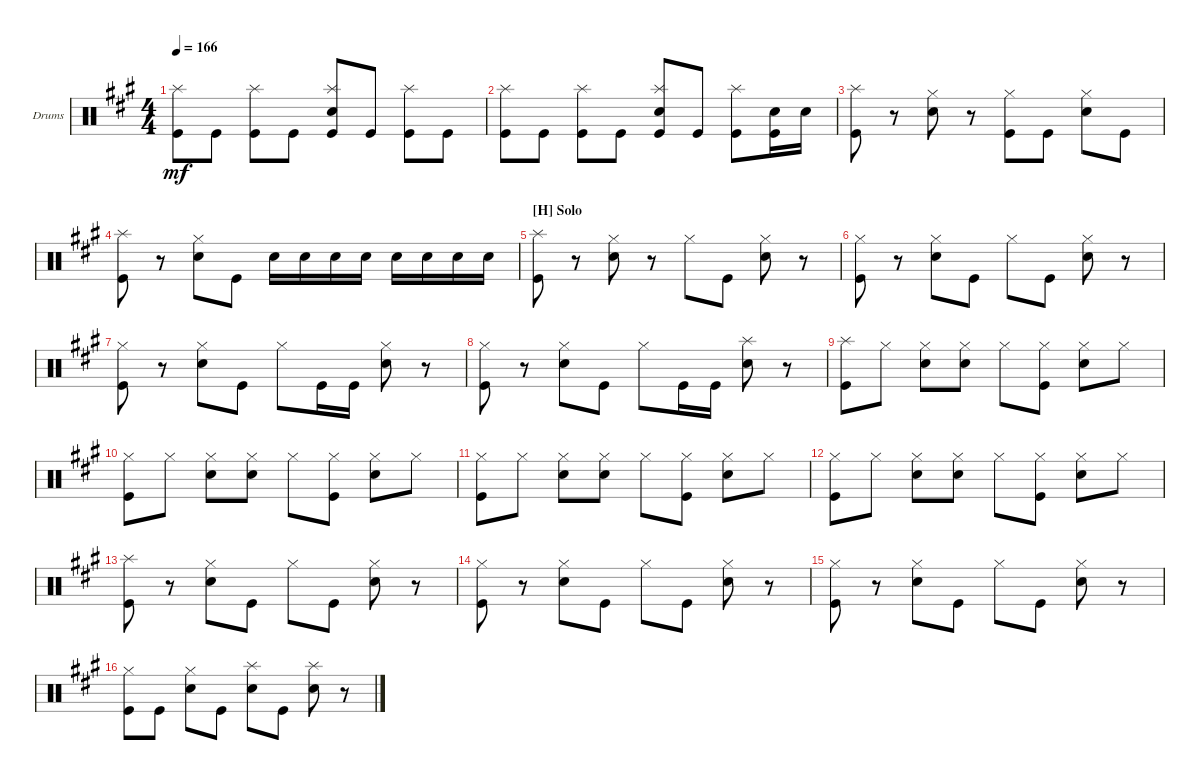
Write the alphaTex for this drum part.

\defaultSystemsLayout 4
\bracketExtendMode groupsimilarinstruments
\firstSystemTrackNameOrientation horizontal
\otherSystemsTrackNameOrientation horizontal
\track ("Drumkit" "Drums") {instrument percussion}
\staff {score}
\articulation defaults
\ts (4 4)
\tempo 166
\clef neutral
\ks a
("Kick (hit)" "Splash (hit)").8{dy mf} "Kick (hit)".8 ("Kick (hit)" "Splash (hit)").8 "Kick (hit)".8 ("Kick (hit)" "Splash (hit)" "Snare (hit) 2").8 "Kick (hit)".8 ("Kick (hit)" "Splash (hit)").8 "Kick (hit)".8 |
("Kick (hit)" "Splash (hit)").8 "Kick (hit)".8 ("Kick (hit)" "Splash (hit)").8 "Kick (hit)".8 ("Kick (hit)" "Splash (hit)" "Snare (hit) 2").8 "Kick (hit)".8 ("Kick (hit)" "Splash (hit)").8 ("Kick (hit)" "Snare (hit) 2").16 "Snare (hit) 2".16 |
("Kick (hit)" "Splash (hit)").8 r.8 ("Snare (hit) 2" "Hi-Hat (closed)").8 r.8 ("Kick (hit)" "Hi-Hat (closed)").8 "Kick (hit)".8 ("Hi-Hat (closed)" "Snare (hit) 2").8 "Kick (hit)".8 |
("Kick (hit)" "Splash (hit)").8 r.8 ("Hi-Hat (closed)" "Snare (hit) 2").8 "Kick (hit)".8 "Snare (hit) 2".16 "Snare (hit) 2".16 "Snare (hit) 2".16 "Snare (hit) 2".16 "Snare (hit) 2".16 "Snare (hit) 2".16 "Snare (hit) 2".16 "Snare (hit) 2".16 |
\section ("H" "Solo")
("Splash (hit)" "Kick (hit)").8 r.8 ("Hi-Hat (closed)" "Snare (hit) 2").8 r.8 "Hi-Hat (closed)".8 "Kick (hit)".8 ("Hi-Hat (closed)" "Snare (hit) 2").8 r.8 |
("Kick (hit)" "Hi-Hat (closed)").8 r.8 ("Hi-Hat (closed)" "Snare (hit) 2").8 "Kick (hit)".8 "Hi-Hat (closed)".8 "Kick (hit)".8 ("Hi-Hat (closed)" "Snare (hit) 2").8 r.8 |
("Kick (hit)" "Hi-Hat (closed)").8 r.8 ("Hi-Hat (closed)" "Snare (hit) 2").8 "Kick (hit)".8 "Hi-Hat (closed)".8 "Kick (hit)".16 "Kick (hit)".16 ("Hi-Hat (closed)" "Snare (hit) 2").8 r.8 |
("Kick (hit)" "Hi-Hat (closed)").8 r.8 ("Hi-Hat (closed)" "Snare (hit) 2").8 "Kick (hit)".8 "Hi-Hat (closed)".8 "Kick (hit)".16 "Kick (hit)".16 ("Snare (hit) 2" "Splash (hit)").8 r.8 |
("Splash (hit)" "Kick (hit)").8 "Hi-Hat (closed)".8 ("Snare (hit) 2" "Hi-Hat (closed)").8 ("Snare (hit) 2" "Hi-Hat (closed)").8 "Hi-Hat (closed)".8 ("Kick (hit)" "Hi-Hat (closed)").8 ("Snare (hit) 2" "Hi-Hat (closed)").8 "Hi-Hat (closed)".8 |
("Kick (hit)" "Hi-Hat (closed)").8 "Hi-Hat (closed)".8 ("Snare (hit) 2" "Hi-Hat (closed)").8 ("Snare (hit) 2" "Hi-Hat (closed)").8 "Hi-Hat (closed)".8 ("Kick (hit)" "Hi-Hat (closed)").8 ("Snare (hit) 2" "Hi-Hat (closed)").8 "Hi-Hat (closed)".8 |
("Kick (hit)" "Hi-Hat (closed)").8 "Hi-Hat (closed)".8 ("Snare (hit) 2" "Hi-Hat (closed)").8 ("Snare (hit) 2" "Hi-Hat (closed)").8 "Hi-Hat (closed)".8 ("Kick (hit)" "Hi-Hat (closed)").8 ("Snare (hit) 2" "Hi-Hat (closed)").8 "Hi-Hat (closed)".8 |
("Kick (hit)" "Hi-Hat (closed)").8 "Hi-Hat (closed)".8 ("Snare (hit) 2" "Hi-Hat (closed)").8 ("Snare (hit) 2" "Hi-Hat (closed)").8 "Hi-Hat (closed)".8 ("Kick (hit)" "Hi-Hat (closed)").8 ("Snare (hit) 2" "Hi-Hat (closed)").8 "Hi-Hat (closed)".8 |
("Kick (hit)" "Splash (hit)").8 r.8 ("Snare (hit) 2" "Hi-Hat (closed)").8 "Kick (hit)".8 "Hi-Hat (closed)".8 "Kick (hit)".8 ("Snare (hit) 2" "Hi-Hat (closed)").8 r.8 |
("Kick (hit)" "Hi-Hat (closed)").8 r.8 ("Snare (hit) 2" "Hi-Hat (closed)").8 "Kick (hit)".8 "Hi-Hat (closed)".8 "Kick (hit)".8 ("Snare (hit) 2" "Hi-Hat (closed)").8 r.8 |
("Kick (hit)" "Hi-Hat (closed)").8 r.8 ("Snare (hit) 2" "Hi-Hat (closed)").8 "Kick (hit)".8 "Hi-Hat (closed)".8 "Kick (hit)".8 ("Snare (hit) 2" "Hi-Hat (closed)").8 r.8 |
("Kick (hit)" "Hi-Hat (closed)").8 "Kick (hit)".8 ("Hi-Hat (closed)" "Snare (hit) 2").8 "Kick (hit)".8 ("Splash (hit)" "Snare (hit) 2").8 "Kick (hit)".8 ("Splash (hit)" "Snare (hit) 2").8 r.8
